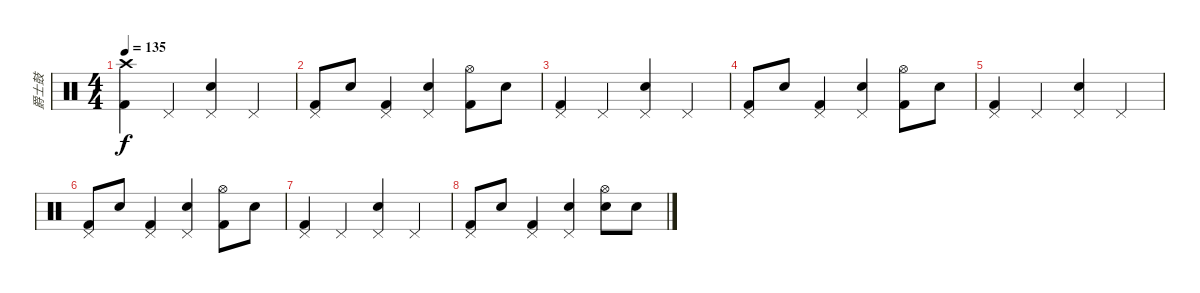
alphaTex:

\track ("爵士鼓" "爵士鼓") {instrument percussion}
\staff {score}
\articulation defaults
\ts (4 4)
\tempo 135
\clef neutral
\ks c
("Crash high (hit)" "Kick (hit) 2").4{dy f} "Pedal Hi-Hat (hit)".4 ("Pedal Hi-Hat (hit)" "Snare (hit) 2").4 "Pedal Hi-Hat (hit)".4 |
("Pedal Hi-Hat (hit)" "Kick (hit) 2").8 "Snare (hit) 2".8 ("Pedal Hi-Hat (hit)" "Kick (hit) 2").4 ("Pedal Hi-Hat (hit)" "Snare (hit) 2").4 ("Hi-Hat (open)" "Kick (hit) 2").8 "Snare (hit) 2".8 |
("Pedal Hi-Hat (hit)" "Kick (hit) 2").4 "Pedal Hi-Hat (hit)".4 ("Pedal Hi-Hat (hit)" "Snare (hit) 2").4 "Pedal Hi-Hat (hit)".4 |
("Pedal Hi-Hat (hit)" "Kick (hit) 2").8 "Snare (hit) 2".8 ("Pedal Hi-Hat (hit)" "Kick (hit) 2").4 ("Pedal Hi-Hat (hit)" "Snare (hit) 2").4 ("Hi-Hat (open)" "Kick (hit) 2").8 "Snare (hit) 2".8 |
("Pedal Hi-Hat (hit)" "Kick (hit) 2").4 "Pedal Hi-Hat (hit)".4 ("Pedal Hi-Hat (hit)" "Snare (hit) 2").4 "Pedal Hi-Hat (hit)".4 |
("Pedal Hi-Hat (hit)" "Kick (hit) 2").8 "Snare (hit) 2".8 ("Pedal Hi-Hat (hit)" "Kick (hit) 2").4 ("Pedal Hi-Hat (hit)" "Snare (hit) 2").4 ("Hi-Hat (open)" "Kick (hit) 2").8 "Snare (hit) 2".8 |
("Pedal Hi-Hat (hit)" "Kick (hit) 2").4 "Pedal Hi-Hat (hit)".4 ("Pedal Hi-Hat (hit)" "Snare (hit) 2").4 "Pedal Hi-Hat (hit)".4 |
("Pedal Hi-Hat (hit)" "Kick (hit) 2").8 "Snare (hit) 2".8 ("Pedal Hi-Hat (hit)" "Kick (hit) 2").4 ("Pedal Hi-Hat (hit)" "Snare (hit) 2").4 ("Hi-Hat (open)" "Snare (hit) 2").8 "Snare (hit) 2".8
